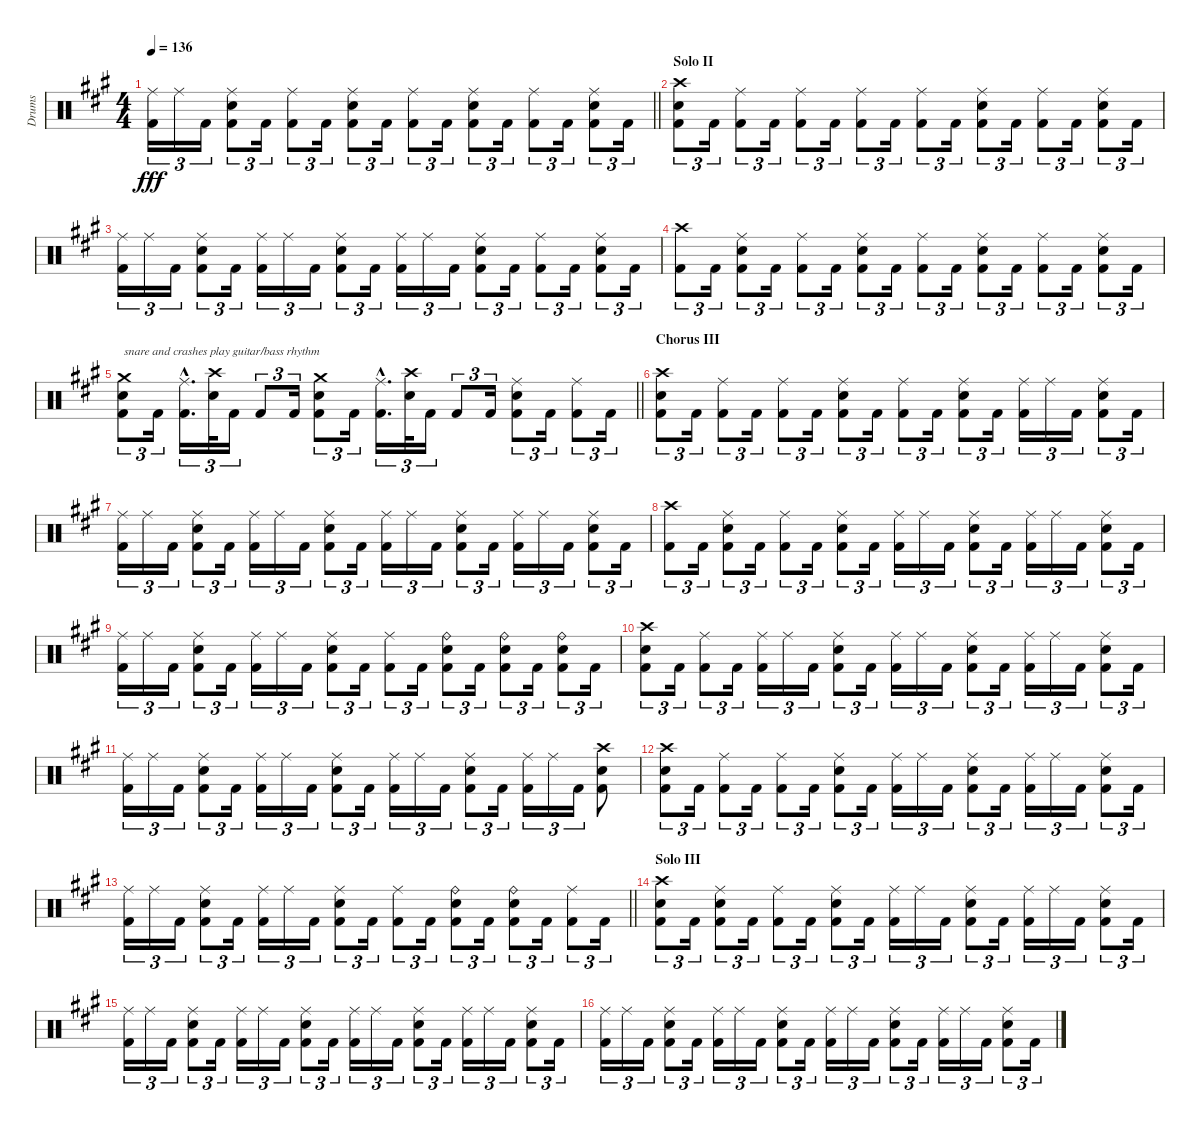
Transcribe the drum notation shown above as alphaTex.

\track ("Drums" "Drums") {instrument percussion}
\staff {score}
\articulation defaults
\ts (4 4)
\tempo 136
\clef neutral
\barLineRight lightlight
\ks a
("Ride (middle)" "Kick (hit) 2").16{tu (3 2) dy fff} "Ride (middle)".16{tu (3 2)} "Kick (hit) 2".16{tu (3 2)} ("Ride (middle)" "Snare (hit) 2" "Kick (hit) 2").8{tu (3 2)} "Kick (hit) 2".16{tu (3 2)} ("Ride (middle)" "Kick (hit) 2").8{tu (3 2)} "Kick (hit) 2".16{tu (3 2)} ("Ride (middle)" "Snare (hit) 2" "Kick (hit) 2").8{tu (3 2)} "Kick (hit) 2".16{tu (3 2)} ("Ride (middle)" "Kick (hit) 2").8{tu (3 2)} "Kick (hit) 2".16{tu (3 2)} ("Ride (middle)" "Snare (hit) 2" "Kick (hit) 2").8{tu (3 2)} "Kick (hit) 2".16{tu (3 2)} ("Ride (middle)" "Kick (hit) 2").8{tu (3 2)} "Kick (hit) 2".16{tu (3 2)} ("Ride (middle)" "Snare (hit) 2" "Kick (hit) 2").8{tu (3 2)} "Kick (hit) 2".16{tu (3 2)} |
\section ("" "Solo II")
("Crash high (hit)" "Snare (hit) 2" "Kick (hit) 2").8{tu (3 2)} "Kick (hit) 2".16{tu (3 2)} ("Ride (middle)" "Kick (hit) 2").8{tu (3 2)} "Kick (hit) 2".16{tu (3 2)} ("Ride (middle)" "Kick (hit) 2").8{tu (3 2)} "Kick (hit) 2".16{tu (3 2)} ("Ride (middle)" "Kick (hit) 2").8{tu (3 2)} "Kick (hit) 2".16{tu (3 2)} ("Ride (middle)" "Kick (hit) 2").8{tu (3 2)} "Kick (hit) 2".16{tu (3 2)} ("Ride (middle)" "Snare (hit) 2" "Kick (hit) 2").8{tu (3 2)} "Kick (hit) 2".16{tu (3 2)} ("Ride (middle)" "Kick (hit) 2").8{tu (3 2)} "Kick (hit) 2".16{tu (3 2)} ("Ride (middle)" "Snare (hit) 2" "Kick (hit) 2").8{tu (3 2)} "Kick (hit) 2".16{tu (3 2)} |
("Ride (middle)" "Kick (hit) 2").16{tu (3 2)} "Ride (middle)".16{tu (3 2)} "Kick (hit) 2".16{tu (3 2)} ("Ride (middle)" "Snare (hit) 2" "Kick (hit) 2").8{tu (3 2)} "Kick (hit) 2".16{tu (3 2)} ("Ride (middle)" "Kick (hit) 2").16{tu (3 2)} "Ride (middle)".16{tu (3 2)} "Kick (hit) 2".16{tu (3 2)} ("Ride (middle)" "Snare (hit) 2" "Kick (hit) 2").8{tu (3 2)} "Kick (hit) 2".16{tu (3 2)} ("Ride (middle)" "Kick (hit) 2").16{tu (3 2)} "Ride (middle)".16{tu (3 2)} "Kick (hit) 2".16{tu (3 2)} ("Ride (middle)" "Snare (hit) 2" "Kick (hit) 2").8{tu (3 2)} "Kick (hit) 2".16{tu (3 2)} ("Ride (middle)" "Kick (hit) 2").8{tu (3 2)} "Kick (hit) 2".16{tu (3 2)} ("Ride (middle)" "Snare (hit) 2" "Kick (hit) 2").8{tu (3 2)} "Kick (hit) 2".16{tu (3 2)} |
("Crash high (hit)" "Kick (hit) 2").8{tu (3 2)} "Kick (hit) 2".16{tu (3 2)} ("Ride (middle)" "Snare (hit) 2" "Kick (hit) 2").8{tu (3 2)} "Kick (hit) 2".16{tu (3 2)} ("Ride (middle)" "Kick (hit) 2").8{tu (3 2)} "Kick (hit) 2".16{tu (3 2)} ("Ride (middle)" "Snare (hit) 2" "Kick (hit) 2").8{tu (3 2)} "Kick (hit) 2".16{tu (3 2)} ("Ride (middle)" "Kick (hit) 2").8{tu (3 2)} "Kick (hit) 2".16{tu (3 2)} ("Ride (middle)" "Snare (hit) 2" "Kick (hit) 2").8{tu (3 2)} "Kick (hit) 2".16{tu (3 2)} ("Ride (middle)" "Kick (hit) 2").8{tu (3 2)} "Kick (hit) 2".16{tu (3 2)} ("Ride (middle)" "Snare (hit) 2" "Kick (hit) 2").8{tu (3 2)} "Kick (hit) 2".16{tu (3 2)} |
\barLineRight lightlight
("Crash medium (hit)" "Snare (hit) 2" "Kick (hit) 2").8{tu (3 2) txt "snare and crashes play guitar/bass rhythm"} "Kick (hit) 2".16{tu (3 2)} ("Ride (middle)"{hac} "Kick (hit) 2"{hac}).16{d tu (3 2)} ("Crash high (hit)" "Snare (hit) 2").32{tu (3 2)} "Kick (hit) 2".16{tu (3 2)} "Kick (hit) 2".8{tu (3 2)} "Kick (hit) 2".16{tu (3 2)} ("Crash medium (hit)" "Snare (hit) 2" "Kick (hit) 2").8{tu (3 2)} "Kick (hit) 2".16{tu (3 2)} ("Ride (middle)"{hac} "Kick (hit) 2"{hac}).16{d tu (3 2)} ("Crash high (hit)" "Snare (hit) 2").32{tu (3 2)} "Kick (hit) 2".16{tu (3 2)} "Kick (hit) 2".8{tu (3 2)} "Kick (hit) 2".16{tu (3 2)} ("Ride (middle)" "Snare (hit) 2" "Kick (hit) 2").8{tu (3 2)} "Kick (hit) 2".16{tu (3 2)} ("Ride (middle)" "Kick (hit) 2").8{tu (3 2)} "Kick (hit) 2".16{tu (3 2)} |
\section ("" "Chorus III")
("Crash high (hit)" "Snare (hit) 2" "Kick (hit) 2").8{tu (3 2)} "Kick (hit) 2".16{tu (3 2)} ("Ride (middle)" "Kick (hit) 2").8{tu (3 2)} "Kick (hit) 2".16{tu (3 2)} ("Ride (middle)" "Kick (hit) 2").8{tu (3 2)} "Kick (hit) 2".16{tu (3 2)} ("Ride (middle)" "Snare (hit) 2" "Kick (hit) 2").8{tu (3 2)} "Kick (hit) 2".16{tu (3 2)} ("Ride (middle)" "Kick (hit) 2").8{tu (3 2)} "Kick (hit) 2".16{tu (3 2)} ("Ride (middle)" "Snare (hit) 2" "Kick (hit) 2").8{tu (3 2)} "Kick (hit) 2".16{tu (3 2)} ("Ride (middle)" "Kick (hit) 2").16{tu (3 2)} "Ride (middle)".16{tu (3 2)} "Kick (hit) 2".16{tu (3 2)} ("Ride (middle)" "Snare (hit) 2" "Kick (hit) 2").8{tu (3 2)} "Kick (hit) 2".16{tu (3 2)} |
("Ride (middle)" "Kick (hit) 2").16{tu (3 2)} "Ride (middle)".16{tu (3 2)} "Kick (hit) 2".16{tu (3 2)} ("Ride (middle)" "Snare (hit) 2" "Kick (hit) 2").8{tu (3 2)} "Kick (hit) 2".16{tu (3 2)} ("Ride (middle)" "Kick (hit) 2").16{tu (3 2)} "Ride (middle)".16{tu (3 2)} "Kick (hit) 2".16{tu (3 2)} ("Ride (middle)" "Snare (hit) 2" "Kick (hit) 2").8{tu (3 2)} "Kick (hit) 2".16{tu (3 2)} ("Ride (middle)" "Kick (hit) 2").16{tu (3 2)} "Ride (middle)".16{tu (3 2)} "Kick (hit) 2".16{tu (3 2)} ("Ride (middle)" "Snare (hit) 2" "Kick (hit) 2").8{tu (3 2)} "Kick (hit) 2".16{tu (3 2)} ("Ride (middle)" "Kick (hit) 2").16{tu (3 2)} "Ride (middle)".16{tu (3 2)} "Kick (hit) 2".16{tu (3 2)} ("Ride (middle)" "Snare (hit) 2" "Kick (hit) 2").8{tu (3 2)} "Kick (hit) 2".16{tu (3 2)} |
("Crash high (hit)" "Kick (hit) 2").8{tu (3 2)} "Kick (hit) 2".16{tu (3 2)} ("Ride (middle)" "Snare (hit) 2" "Kick (hit) 2").8{tu (3 2)} "Kick (hit) 2".16{tu (3 2)} ("Ride (middle)" "Kick (hit) 2").8{tu (3 2)} "Kick (hit) 2".16{tu (3 2)} ("Ride (middle)" "Snare (hit) 2" "Kick (hit) 2").8{tu (3 2)} "Kick (hit) 2".16{tu (3 2)} ("Ride (middle)" "Kick (hit) 2").16{tu (3 2)} "Ride (middle)".16{tu (3 2)} "Kick (hit) 2".16{tu (3 2)} ("Ride (middle)" "Snare (hit) 2" "Kick (hit) 2").8{tu (3 2)} "Kick (hit) 2".16{tu (3 2)} ("Ride (middle)" "Kick (hit) 2").16{tu (3 2)} "Ride (middle)".16{tu (3 2)} "Kick (hit) 2".16{tu (3 2)} ("Ride (middle)" "Snare (hit) 2" "Kick (hit) 2").8{tu (3 2)} "Kick (hit) 2".16{tu (3 2)} |
("Ride (middle)" "Kick (hit) 2").16{tu (3 2)} "Ride (middle)".16{tu (3 2)} "Kick (hit) 2".16{tu (3 2)} ("Ride (middle)" "Snare (hit) 2" "Kick (hit) 2").8{tu (3 2)} "Kick (hit) 2".16{tu (3 2)} ("Ride (middle)" "Kick (hit) 2").16{tu (3 2)} "Ride (middle)".16{tu (3 2)} "Kick (hit) 2".16{tu (3 2)} ("Ride (middle)" "Snare (hit) 2" "Kick (hit) 2").8{tu (3 2)} "Kick (hit) 2".16{tu (3 2)} ("Ride (middle)" "Kick (hit) 2").8{tu (3 2)} "Kick (hit) 2".16{tu (3 2)} ("Ride (bell)" "Snare (hit) 2" "Kick (hit) 2").8{tu (3 2)} "Kick (hit) 2".16{tu (3 2)} ("Ride (bell)" "Snare (hit) 2" "Kick (hit) 2").8{tu (3 2)} "Kick (hit) 2".16{tu (3 2)} ("Ride (bell)" "Snare (hit) 2" "Kick (hit) 2").8{tu (3 2)} "Kick (hit) 2".16{tu (3 2)} |
("Crash high (hit)" "Snare (hit) 2" "Kick (hit) 2").8{tu (3 2)} "Kick (hit) 2".16{tu (3 2)} ("Ride (middle)" "Kick (hit) 2").8{tu (3 2)} "Kick (hit) 2".16{tu (3 2)} ("Ride (middle)" "Kick (hit) 2").16{tu (3 2)} "Ride (middle)".16{tu (3 2)} "Kick (hit) 2".16{tu (3 2)} ("Ride (middle)" "Snare (hit) 2" "Kick (hit) 2").8{tu (3 2)} "Kick (hit) 2".16{tu (3 2)} ("Ride (middle)" "Kick (hit) 2").16{tu (3 2)} "Ride (middle)".16{tu (3 2)} "Kick (hit) 2".16{tu (3 2)} ("Ride (middle)" "Snare (hit) 2" "Kick (hit) 2").8{tu (3 2)} "Kick (hit) 2".16{tu (3 2)} ("Ride (middle)" "Kick (hit) 2").16{tu (3 2)} "Ride (middle)".16{tu (3 2)} "Kick (hit) 2".16{tu (3 2)} ("Ride (middle)" "Snare (hit) 2" "Kick (hit) 2").8{tu (3 2)} "Kick (hit) 2".16{tu (3 2)} |
("Ride (middle)" "Kick (hit) 2").16{tu (3 2)} "Ride (middle)".16{tu (3 2)} "Kick (hit) 2".16{tu (3 2)} ("Ride (middle)" "Snare (hit) 2" "Kick (hit) 2").8{tu (3 2)} "Kick (hit) 2".16{tu (3 2)} ("Ride (middle)" "Kick (hit) 2").16{tu (3 2)} "Ride (middle)".16{tu (3 2)} "Kick (hit) 2".16{tu (3 2)} ("Ride (middle)" "Snare (hit) 2" "Kick (hit) 2").8{tu (3 2)} "Kick (hit) 2".16{tu (3 2)} ("Ride (middle)" "Kick (hit) 2").16{tu (3 2)} "Ride (middle)".16{tu (3 2)} "Kick (hit) 2".16{tu (3 2)} ("Ride (middle)" "Snare (hit) 2" "Kick (hit) 2").8{tu (3 2)} "Kick (hit) 2".16{tu (3 2)} ("Ride (middle)" "Kick (hit) 2").16{tu (3 2)} "Ride (middle)".16{tu (3 2)} "Kick (hit) 2".16{tu (3 2)} ("Crash high (hit)" "Snare (hit) 2" "Kick (hit) 2").8 |
("Crash high (hit)" "Snare (hit) 2" "Kick (hit) 2").8{tu (3 2)} "Kick (hit) 2".16{tu (3 2)} ("Ride (middle)" "Kick (hit) 2").8{tu (3 2)} "Kick (hit) 2".16{tu (3 2)} ("Ride (middle)" "Kick (hit) 2").8{tu (3 2)} "Kick (hit) 2".16{tu (3 2)} ("Ride (middle)" "Snare (hit) 2" "Kick (hit) 2").8{tu (3 2)} "Kick (hit) 2".16{tu (3 2)} ("Ride (middle)" "Kick (hit) 2").16{tu (3 2)} "Ride (middle)".16{tu (3 2)} "Kick (hit) 2".16{tu (3 2)} ("Ride (middle)" "Snare (hit) 2" "Kick (hit) 2").8{tu (3 2)} "Kick (hit) 2".16{tu (3 2)} ("Ride (middle)" "Kick (hit) 2").16{tu (3 2)} "Ride (middle)".16{tu (3 2)} "Kick (hit) 2".16{tu (3 2)} ("Ride (middle)" "Snare (hit) 2" "Kick (hit) 2").8{tu (3 2)} "Kick (hit) 2".16{tu (3 2)} |
\barLineRight lightlight
("Ride (middle)" "Kick (hit) 2").16{tu (3 2)} "Ride (middle)".16{tu (3 2)} "Kick (hit) 2".16{tu (3 2)} ("Ride (middle)" "Snare (hit) 2" "Kick (hit) 2").8{tu (3 2)} "Kick (hit) 2".16{tu (3 2)} ("Ride (middle)" "Kick (hit) 2").16{tu (3 2)} "Ride (middle)".16{tu (3 2)} "Kick (hit) 2".16{tu (3 2)} ("Ride (middle)" "Snare (hit) 2" "Kick (hit) 2").8{tu (3 2)} "Kick (hit) 2".16{tu (3 2)} ("Ride (middle)" "Kick (hit) 2").8{tu (3 2)} "Kick (hit) 2".16{tu (3 2)} ("Ride (bell)" "Snare (hit) 2" "Kick (hit) 2").8{tu (3 2)} "Kick (hit) 2".16{tu (3 2)} ("Ride (bell)" "Snare (hit) 2" "Kick (hit) 2").8{tu (3 2)} "Kick (hit) 2".16{tu (3 2)} ("Ride (middle)" "Kick (hit) 2").8{tu (3 2)} "Kick (hit) 2".16{tu (3 2)} |
\section ("" "Solo III")
("Crash high (hit)" "Snare (hit) 2" "Kick (hit) 2").8{tu (3 2)} "Kick (hit) 2".16{tu (3 2)} ("Ride (middle)" "Snare (hit) 2" "Kick (hit) 2").8{tu (3 2)} "Kick (hit) 2".16{tu (3 2)} ("Ride (middle)" "Kick (hit) 2").8{tu (3 2)} "Kick (hit) 2".16{tu (3 2)} ("Ride (middle)" "Snare (hit) 2" "Kick (hit) 2").8{tu (3 2)} "Kick (hit) 2".16{tu (3 2)} ("Ride (middle)" "Kick (hit) 2").16{tu (3 2)} "Ride (middle)".16{tu (3 2)} "Kick (hit) 2".16{tu (3 2)} ("Ride (middle)" "Snare (hit) 2" "Kick (hit) 2").8{tu (3 2)} "Kick (hit) 2".16{tu (3 2)} ("Ride (middle)" "Kick (hit) 2").16{tu (3 2)} "Ride (middle)".16{tu (3 2)} "Kick (hit) 2".16{tu (3 2)} ("Ride (middle)" "Snare (hit) 2" "Kick (hit) 2").8{tu (3 2)} "Kick (hit) 2".16{tu (3 2)} |
("Ride (middle)" "Kick (hit) 2").16{tu (3 2)} "Ride (middle)".16{tu (3 2)} "Kick (hit) 2".16{tu (3 2)} ("Ride (middle)" "Snare (hit) 2" "Kick (hit) 2").8{tu (3 2)} "Kick (hit) 2".16{tu (3 2)} ("Ride (middle)" "Kick (hit) 2").16{tu (3 2)} "Ride (middle)".16{tu (3 2)} "Kick (hit) 2".16{tu (3 2)} ("Ride (middle)" "Snare (hit) 2" "Kick (hit) 2").8{tu (3 2)} "Kick (hit) 2".16{tu (3 2)} ("Ride (middle)" "Kick (hit) 2").16{tu (3 2)} "Ride (middle)".16{tu (3 2)} "Kick (hit) 2".16{tu (3 2)} ("Ride (middle)" "Snare (hit) 2" "Kick (hit) 2").8{tu (3 2)} "Kick (hit) 2".16{tu (3 2)} ("Ride (middle)" "Kick (hit) 2").16{tu (3 2)} "Ride (middle)".16{tu (3 2)} "Kick (hit) 2".16{tu (3 2)} ("Ride (middle)" "Snare (hit) 2" "Kick (hit) 2").8{tu (3 2)} "Kick (hit) 2".16{tu (3 2)} |
("Ride (middle)" "Kick (hit) 2").16{tu (3 2)} "Ride (middle)".16{tu (3 2)} "Kick (hit) 2".16{tu (3 2)} ("Ride (middle)" "Snare (hit) 2" "Kick (hit) 2").8{tu (3 2)} "Kick (hit) 2".16{tu (3 2)} ("Ride (middle)" "Kick (hit) 2").16{tu (3 2)} "Ride (middle)".16{tu (3 2)} "Kick (hit) 2".16{tu (3 2)} ("Ride (middle)" "Snare (hit) 2" "Kick (hit) 2").8{tu (3 2)} "Kick (hit) 2".16{tu (3 2)} ("Ride (middle)" "Kick (hit) 2").16{tu (3 2)} "Ride (middle)".16{tu (3 2)} "Kick (hit) 2".16{tu (3 2)} ("Ride (middle)" "Snare (hit) 2" "Kick (hit) 2").8{tu (3 2)} "Kick (hit) 2".16{tu (3 2)} ("Ride (middle)" "Kick (hit) 2").16{tu (3 2)} "Ride (middle)".16{tu (3 2)} "Kick (hit) 2".16{tu (3 2)} ("Ride (middle)" "Snare (hit) 2" "Kick (hit) 2").8{tu (3 2)} "Kick (hit) 2".16{tu (3 2)}
